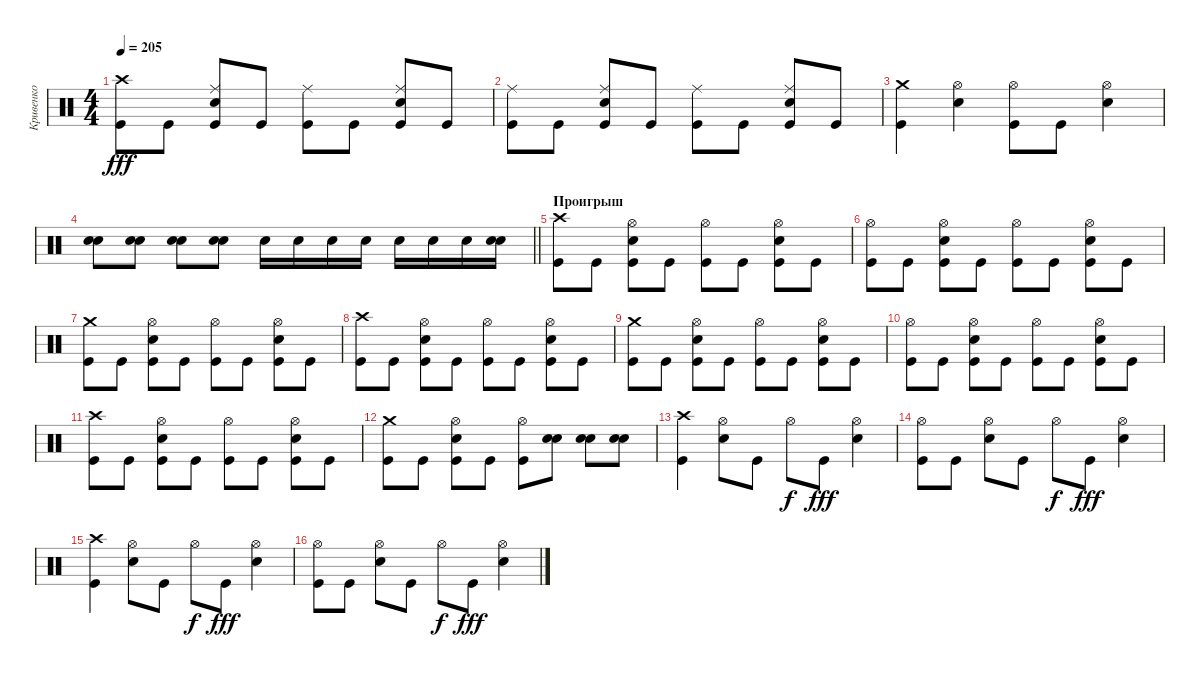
\track ("Кривенко" "Кривенко") {instrument percussion}
\staff {score}
\articulation defaults
\ts (4 4)
\tempo 205
\clef neutral
\ks c
("Crash high (hit)" "Kick (hit)").8{dy fff} "Kick (hit)".8 ("Ride (middle)" "Electric Snare (hit)" "Kick (hit)").8 "Kick (hit)".8 ("Ride (middle)" "Kick (hit)").8 "Kick (hit)".8 ("Ride (middle)" "Electric Snare (hit)" "Kick (hit)").8 "Kick (hit)".8 |
("Ride (middle)" "Kick (hit)").8 "Kick (hit)".8 ("Ride (middle)" "Electric Snare (hit)" "Kick (hit)").8 "Kick (hit)".8 ("Ride (middle)" "Kick (hit)").8 "Kick (hit)".8 ("Ride (middle)" "Electric Snare (hit)" "Kick (hit)").8 "Kick (hit)".8 |
("Crash medium (hit)" "Kick (hit)").4 ("Hi-Hat (open)" "Electric Snare (hit)").4 ("Hi-Hat (open)" "Kick (hit)").8 "Kick (hit)".8 ("Hi-Hat (open)" "Electric Snare (hit)").4 |
\barLineRight lightlight
("Electric Snare (hit)" "Electric Snare (hit)").8 ("Electric Snare (hit)" "Electric Snare (hit)").8 ("Electric Snare (hit)" "Electric Snare (hit)").8 ("Electric Snare (hit)" "Electric Snare (hit)").8 "Electric Snare (hit)".16 "Electric Snare (hit)".16 "Electric Snare (hit)".16 "Electric Snare (hit)".16 "Electric Snare (hit)".16 "Electric Snare (hit)".16 "Electric Snare (hit)".16 ("Electric Snare (hit)" "Electric Snare (hit)").16 |
\section ("" "Проигрыш")
("Crash high (hit)" "Kick (hit)").8 "Kick (hit)".8 ("Hi-Hat (open)" "Electric Snare (hit)" "Kick (hit)").8 "Kick (hit)".8 ("Hi-Hat (open)" "Kick (hit)").8 "Kick (hit)".8 ("Hi-Hat (open)" "Electric Snare (hit)" "Kick (hit)").8 "Kick (hit)".8 |
("Hi-Hat (open)" "Kick (hit)").8 "Kick (hit)".8 ("Hi-Hat (open)" "Electric Snare (hit)" "Kick (hit)").8 "Kick (hit)".8 ("Hi-Hat (open)" "Kick (hit)").8 "Kick (hit)".8 ("Hi-Hat (open)" "Electric Snare (hit)" "Kick (hit)").8 "Kick (hit)".8 |
("Crash medium (hit)" "Kick (hit)").8 "Kick (hit)".8 ("Hi-Hat (open)" "Electric Snare (hit)" "Kick (hit)").8 "Kick (hit)".8 ("Hi-Hat (open)" "Kick (hit)").8 "Kick (hit)".8 ("Hi-Hat (open)" "Electric Snare (hit)" "Kick (hit)").8 "Kick (hit)".8 |
("Crash high (hit)" "Kick (hit)").8 "Kick (hit)".8 ("Hi-Hat (open)" "Electric Snare (hit)" "Kick (hit)").8 "Kick (hit)".8 ("Hi-Hat (open)" "Kick (hit)").8 "Kick (hit)".8 ("Hi-Hat (open)" "Electric Snare (hit)" "Kick (hit)").8 "Kick (hit)".8 |
("Crash medium (hit)" "Kick (hit)").8 "Kick (hit)".8 ("Hi-Hat (open)" "Electric Snare (hit)" "Kick (hit)").8 "Kick (hit)".8 ("Hi-Hat (open)" "Kick (hit)").8 "Kick (hit)".8 ("Hi-Hat (open)" "Electric Snare (hit)" "Kick (hit)").8 "Kick (hit)".8 |
("Hi-Hat (open)" "Kick (hit)").8 "Kick (hit)".8 ("Hi-Hat (open)" "Electric Snare (hit)" "Kick (hit)").8 "Kick (hit)".8 ("Hi-Hat (open)" "Kick (hit)").8 "Kick (hit)".8 ("Hi-Hat (open)" "Electric Snare (hit)" "Kick (hit)").8 "Kick (hit)".8 |
("Crash high (hit)" "Kick (hit)").8 "Kick (hit)".8 ("Hi-Hat (open)" "Electric Snare (hit)" "Kick (hit)").8 "Kick (hit)".8 ("Hi-Hat (open)" "Kick (hit)").8 "Kick (hit)".8 ("Hi-Hat (open)" "Electric Snare (hit)" "Kick (hit)").8 "Kick (hit)".8 |
("Crash medium (hit)" "Kick (hit)").8 "Kick (hit)".8 ("Hi-Hat (open)" "Electric Snare (hit)" "Kick (hit)").8 "Kick (hit)".8 ("Hi-Hat (open)" "Kick (hit)").8 ("Electric Snare (hit)" "Electric Snare (hit)").8 ("Electric Snare (hit)" "Electric Snare (hit)").8 ("Electric Snare (hit)" "Electric Snare (hit)").8 |
("Crash high (hit)" "Kick (hit)").4 ("Hi-Hat (open)" "Electric Snare (hit)").8 "Kick (hit)".8 "Hi-Hat (open)".8{dy f} "Kick (hit)".8{dy fff} ("Hi-Hat (open)" "Electric Snare (hit)").4 |
("Hi-Hat (open)" "Kick (hit)").8 "Kick (hit)".8 ("Hi-Hat (open)" "Electric Snare (hit)").8 "Kick (hit)".8 "Hi-Hat (open)".8{dy f} "Kick (hit)".8{dy fff} ("Hi-Hat (open)" "Electric Snare (hit)").4 |
("Crash high (hit)" "Kick (hit)").4 ("Hi-Hat (open)" "Electric Snare (hit)").8 "Kick (hit)".8 "Hi-Hat (open)".8{dy f} "Kick (hit)".8{dy fff} ("Hi-Hat (open)" "Electric Snare (hit)").4 |
("Hi-Hat (open)" "Kick (hit)").8 "Kick (hit)".8 ("Hi-Hat (open)" "Electric Snare (hit)").8 "Kick (hit)".8 "Hi-Hat (open)".8{dy f} "Kick (hit)".8{dy fff} ("Hi-Hat (open)" "Electric Snare (hit)").4
